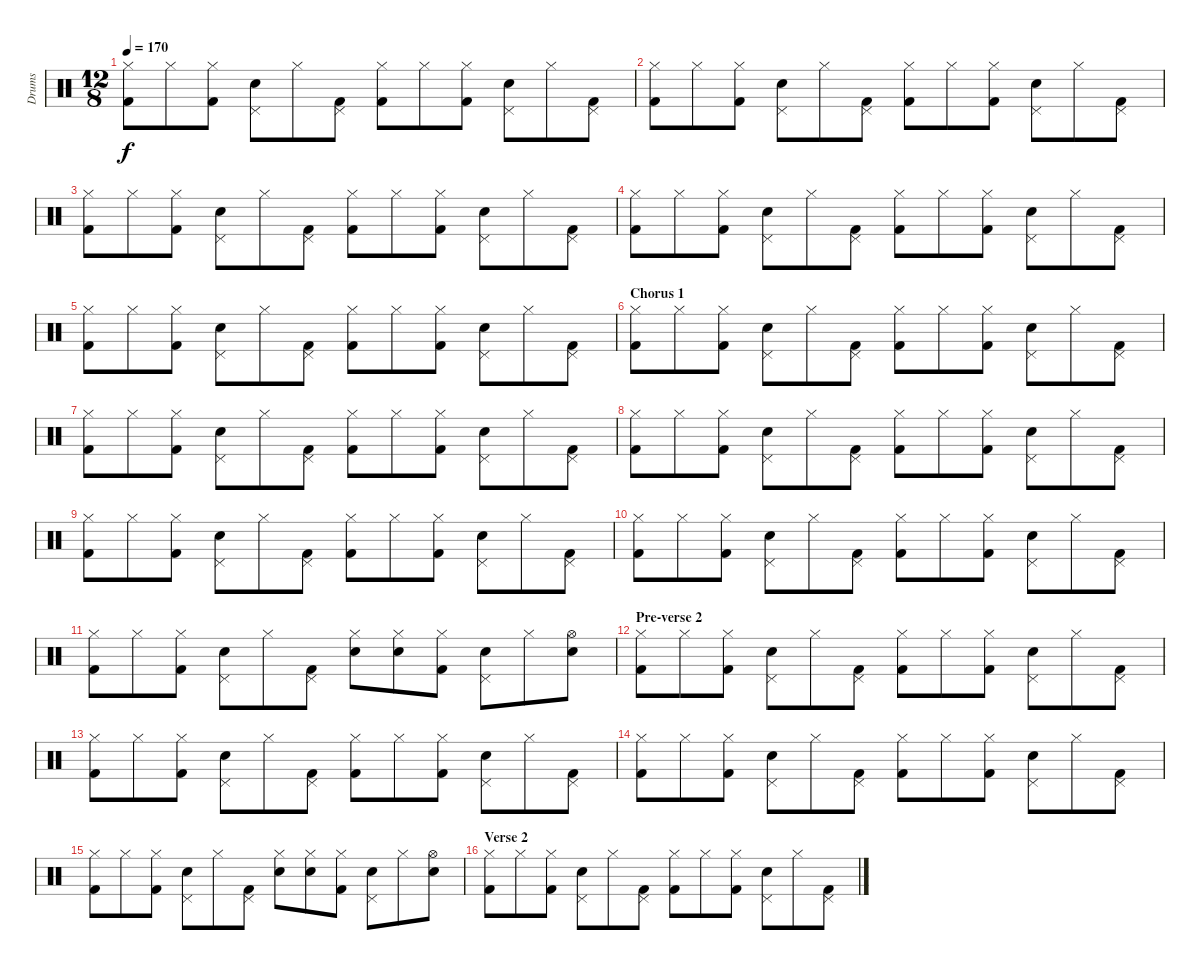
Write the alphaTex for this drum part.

\track ("Drums" "Drums") {instrument percussion}
\staff {score}
\articulation defaults
\ts (12 8)
\tempo 170
\clef neutral
\ks c
("Kick (hit) 2" "Hi-Hat (closed)").8{dy f} "Hi-Hat (closed)".8 ("Kick (hit) 2" "Hi-Hat (closed)").8 ("Snare (hit) 2" "Pedal Hi-Hat (hit)").8 "Hi-Hat (closed)".8 ("Kick (hit) 2" "Pedal Hi-Hat (hit)").8 ("Kick (hit) 2" "Hi-Hat (closed)").8 "Hi-Hat (closed)".8 ("Kick (hit) 2" "Hi-Hat (closed)").8 ("Snare (hit) 2" "Pedal Hi-Hat (hit)").8 "Hi-Hat (closed)".8 ("Kick (hit) 2" "Pedal Hi-Hat (hit)").8 |
("Kick (hit) 2" "Hi-Hat (closed)").8 "Hi-Hat (closed)".8 ("Kick (hit) 2" "Hi-Hat (closed)").8 ("Snare (hit) 2" "Pedal Hi-Hat (hit)").8 "Hi-Hat (closed)".8 ("Kick (hit) 2" "Pedal Hi-Hat (hit)").8 ("Kick (hit) 2" "Hi-Hat (closed)").8 "Hi-Hat (closed)".8 ("Kick (hit) 2" "Hi-Hat (closed)").8 ("Snare (hit) 2" "Pedal Hi-Hat (hit)").8 "Hi-Hat (closed)".8 ("Kick (hit) 2" "Pedal Hi-Hat (hit)").8 |
("Kick (hit) 2" "Hi-Hat (closed)").8 "Hi-Hat (closed)".8 ("Kick (hit) 2" "Hi-Hat (closed)").8 ("Snare (hit) 2" "Pedal Hi-Hat (hit)").8 "Hi-Hat (closed)".8 ("Kick (hit) 2" "Pedal Hi-Hat (hit)").8 ("Kick (hit) 2" "Hi-Hat (closed)").8 "Hi-Hat (closed)".8 ("Kick (hit) 2" "Hi-Hat (closed)").8 ("Snare (hit) 2" "Pedal Hi-Hat (hit)").8 "Hi-Hat (closed)".8 ("Kick (hit) 2" "Pedal Hi-Hat (hit)").8 |
("Kick (hit) 2" "Hi-Hat (closed)").8 "Hi-Hat (closed)".8 ("Kick (hit) 2" "Hi-Hat (closed)").8 ("Snare (hit) 2" "Pedal Hi-Hat (hit)").8 "Hi-Hat (closed)".8 ("Kick (hit) 2" "Pedal Hi-Hat (hit)").8 ("Kick (hit) 2" "Hi-Hat (closed)").8 "Hi-Hat (closed)".8 ("Kick (hit) 2" "Hi-Hat (closed)").8 ("Snare (hit) 2" "Pedal Hi-Hat (hit)").8 "Hi-Hat (closed)".8 ("Kick (hit) 2" "Pedal Hi-Hat (hit)").8 |
("Kick (hit) 2" "Hi-Hat (closed)").8 "Hi-Hat (closed)".8 ("Kick (hit) 2" "Hi-Hat (closed)").8 ("Snare (hit) 2" "Pedal Hi-Hat (hit)").8 "Hi-Hat (closed)".8 ("Kick (hit) 2" "Pedal Hi-Hat (hit)").8 ("Kick (hit) 2" "Hi-Hat (closed)").8 "Hi-Hat (closed)".8 ("Kick (hit) 2" "Hi-Hat (closed)").8 ("Snare (hit) 2" "Pedal Hi-Hat (hit)").8 "Hi-Hat (closed)".8 ("Kick (hit) 2" "Pedal Hi-Hat (hit)").8 |
\section ("" "Chorus 1")
("Kick (hit) 2" "Hi-Hat (closed)").8 "Hi-Hat (closed)".8 ("Kick (hit) 2" "Hi-Hat (closed)").8 ("Snare (hit) 2" "Pedal Hi-Hat (hit)").8 "Hi-Hat (closed)".8 ("Kick (hit) 2" "Pedal Hi-Hat (hit)").8 ("Kick (hit) 2" "Hi-Hat (closed)").8 "Hi-Hat (closed)".8 ("Kick (hit) 2" "Hi-Hat (closed)").8 ("Snare (hit) 2" "Pedal Hi-Hat (hit)").8 "Hi-Hat (closed)".8 ("Kick (hit) 2" "Pedal Hi-Hat (hit)").8 |
("Kick (hit) 2" "Hi-Hat (closed)").8 "Hi-Hat (closed)".8 ("Kick (hit) 2" "Hi-Hat (closed)").8 ("Snare (hit) 2" "Pedal Hi-Hat (hit)").8 "Hi-Hat (closed)".8 ("Kick (hit) 2" "Pedal Hi-Hat (hit)").8 ("Kick (hit) 2" "Hi-Hat (closed)").8 "Hi-Hat (closed)".8 ("Kick (hit) 2" "Hi-Hat (closed)").8 ("Snare (hit) 2" "Pedal Hi-Hat (hit)").8 "Hi-Hat (closed)".8 ("Kick (hit) 2" "Pedal Hi-Hat (hit)").8 |
("Kick (hit) 2" "Hi-Hat (closed)").8 "Hi-Hat (closed)".8 ("Kick (hit) 2" "Hi-Hat (closed)").8 ("Snare (hit) 2" "Pedal Hi-Hat (hit)").8 "Hi-Hat (closed)".8 ("Kick (hit) 2" "Pedal Hi-Hat (hit)").8 ("Kick (hit) 2" "Hi-Hat (closed)").8 "Hi-Hat (closed)".8 ("Kick (hit) 2" "Hi-Hat (closed)").8 ("Snare (hit) 2" "Pedal Hi-Hat (hit)").8 "Hi-Hat (closed)".8 ("Kick (hit) 2" "Pedal Hi-Hat (hit)").8 |
("Kick (hit) 2" "Hi-Hat (closed)").8 "Hi-Hat (closed)".8 ("Kick (hit) 2" "Hi-Hat (closed)").8 ("Snare (hit) 2" "Pedal Hi-Hat (hit)").8 "Hi-Hat (closed)".8 ("Kick (hit) 2" "Pedal Hi-Hat (hit)").8 ("Kick (hit) 2" "Hi-Hat (closed)").8 "Hi-Hat (closed)".8 ("Kick (hit) 2" "Hi-Hat (closed)").8 ("Snare (hit) 2" "Pedal Hi-Hat (hit)").8 "Hi-Hat (closed)".8 ("Kick (hit) 2" "Pedal Hi-Hat (hit)").8 |
("Kick (hit) 2" "Hi-Hat (closed)").8 "Hi-Hat (closed)".8 ("Kick (hit) 2" "Hi-Hat (closed)").8 ("Snare (hit) 2" "Pedal Hi-Hat (hit)").8 "Hi-Hat (closed)".8 ("Kick (hit) 2" "Pedal Hi-Hat (hit)").8 ("Kick (hit) 2" "Hi-Hat (closed)").8 "Hi-Hat (closed)".8 ("Kick (hit) 2" "Hi-Hat (closed)").8 ("Snare (hit) 2" "Pedal Hi-Hat (hit)").8 "Hi-Hat (closed)".8 ("Kick (hit) 2" "Pedal Hi-Hat (hit)").8 |
("Kick (hit) 2" "Hi-Hat (closed)").8 "Hi-Hat (closed)".8 ("Kick (hit) 2" "Hi-Hat (closed)").8 ("Snare (hit) 2" "Pedal Hi-Hat (hit)").8 "Hi-Hat (closed)".8 ("Kick (hit) 2" "Pedal Hi-Hat (hit)").8 ("Snare (hit) 2" "Hi-Hat (closed)").8 ("Snare (hit) 2" "Hi-Hat (closed)").8 ("Kick (hit) 2" "Hi-Hat (closed)").8 ("Snare (hit) 2" "Pedal Hi-Hat (hit)").8 "Hi-Hat (closed)".8 ("Snare (hit) 2" "Hi-Hat (open)").8 |
\section ("" "Pre-verse 2")
("Kick (hit) 2" "Hi-Hat (closed)").8 "Hi-Hat (closed)".8 ("Kick (hit) 2" "Hi-Hat (closed)").8 ("Snare (hit) 2" "Pedal Hi-Hat (hit)").8 "Hi-Hat (closed)".8 ("Kick (hit) 2" "Pedal Hi-Hat (hit)").8 ("Kick (hit) 2" "Hi-Hat (closed)").8 "Hi-Hat (closed)".8 ("Kick (hit) 2" "Hi-Hat (closed)").8 ("Snare (hit) 2" "Pedal Hi-Hat (hit)").8 "Hi-Hat (closed)".8 ("Kick (hit) 2" "Pedal Hi-Hat (hit)").8 |
("Kick (hit) 2" "Hi-Hat (closed)").8 "Hi-Hat (closed)".8 ("Kick (hit) 2" "Hi-Hat (closed)").8 ("Snare (hit) 2" "Pedal Hi-Hat (hit)").8 "Hi-Hat (closed)".8 ("Kick (hit) 2" "Pedal Hi-Hat (hit)").8 ("Kick (hit) 2" "Hi-Hat (closed)").8 "Hi-Hat (closed)".8 ("Kick (hit) 2" "Hi-Hat (closed)").8 ("Snare (hit) 2" "Pedal Hi-Hat (hit)").8 "Hi-Hat (closed)".8 ("Kick (hit) 2" "Pedal Hi-Hat (hit)").8 |
("Kick (hit) 2" "Hi-Hat (closed)").8 "Hi-Hat (closed)".8 ("Kick (hit) 2" "Hi-Hat (closed)").8 ("Snare (hit) 2" "Pedal Hi-Hat (hit)").8 "Hi-Hat (closed)".8 ("Kick (hit) 2" "Pedal Hi-Hat (hit)").8 ("Kick (hit) 2" "Hi-Hat (closed)").8 "Hi-Hat (closed)".8 ("Kick (hit) 2" "Hi-Hat (closed)").8 ("Snare (hit) 2" "Pedal Hi-Hat (hit)").8 "Hi-Hat (closed)".8 ("Kick (hit) 2" "Pedal Hi-Hat (hit)").8 |
("Kick (hit) 2" "Hi-Hat (closed)").8 "Hi-Hat (closed)".8 ("Kick (hit) 2" "Hi-Hat (closed)").8 ("Snare (hit) 2" "Pedal Hi-Hat (hit)").8 "Hi-Hat (closed)".8 ("Kick (hit) 2" "Pedal Hi-Hat (hit)").8 ("Snare (hit) 2" "Hi-Hat (closed)").8 ("Snare (hit) 2" "Hi-Hat (closed)").8 ("Kick (hit) 2" "Hi-Hat (closed)").8 ("Snare (hit) 2" "Pedal Hi-Hat (hit)").8 "Hi-Hat (closed)".8 ("Snare (hit) 2" "Hi-Hat (open)").8 |
\section ("" "Verse 2")
("Kick (hit) 2" "Hi-Hat (closed)").8 "Hi-Hat (closed)".8 ("Kick (hit) 2" "Hi-Hat (closed)").8 ("Snare (hit) 2" "Pedal Hi-Hat (hit)").8 "Hi-Hat (closed)".8 ("Kick (hit) 2" "Pedal Hi-Hat (hit)").8 ("Kick (hit) 2" "Hi-Hat (closed)").8 "Hi-Hat (closed)".8 ("Kick (hit) 2" "Hi-Hat (closed)").8 ("Snare (hit) 2" "Pedal Hi-Hat (hit)").8 "Hi-Hat (closed)".8 ("Kick (hit) 2" "Pedal Hi-Hat (hit)").8
